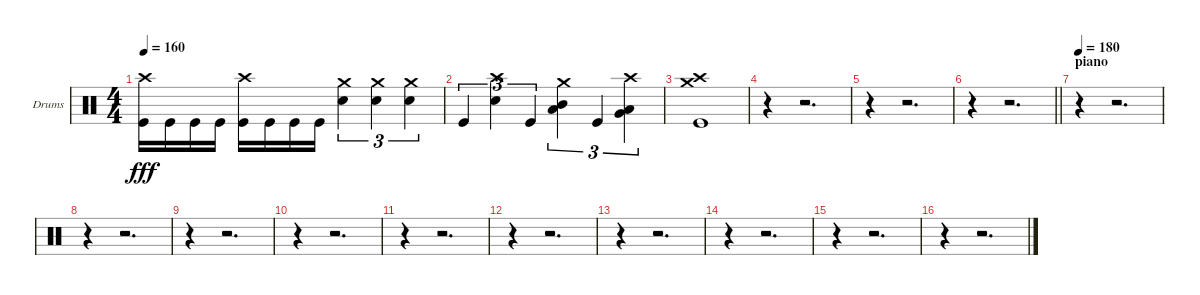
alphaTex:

\bracketExtendMode groupsimilarinstruments
\firstSystemTrackNameOrientation horizontal
\otherSystemsTrackNameOrientation horizontal
\track ("Drumkit" "Drums") {instrument percussion}
\staff {score}
\articulation defaults
\ts (4 4)
\tempo 160
\clef neutral
\ks c
("Crash high (hit)" "Kick (hit)").16{dy fff} "Kick (hit)".16 "Kick (hit)".16 "Kick (hit)".16 ("Crash high (hit)" "Kick (hit)").16 "Kick (hit)".16 "Kick (hit)".16 "Kick (hit)".16 ("Crash medium (hit)" "Snare (hit) 2").4{tu (3 2)} ("Crash medium (hit)" "Snare (hit) 2").4{tu (3 2)} ("Crash medium (hit)" "Snare (hit) 2").4{tu (3 2)} |
"Kick (hit)".4{tu (3 2)} ("Crash high (hit)" "Snare (hit) 2").4{tu (3 2)} "Kick (hit)".4{tu (3 2)} ("Crash medium (hit)" "Mid Tom (hit)" "Low Tom (hit)").4{tu (3 2)} "Kick (hit)".4{tu (3 2)} ("Crash high (hit)" "Low Tom (hit)" "Very Low Tom (hit)").4{tu (3 2)} |
("Crash medium (hit)" "Crash high (hit)" "Kick (hit)").1 |
r.4 r.2{d} |
r.4 r.2{d} |
\barLineRight lightlight
r.4 r.2{d} |
\section ("" "piano")
\tempo 180
r.4 r.2{d} |
r.4 r.2{d} |
r.4 r.2{d} |
r.4 r.2{d} |
r.4 r.2{d} |
r.4 r.2{d} |
r.4 r.2{d} |
r.4 r.2{d} |
r.4 r.2{d} |
r.4 r.2{d}
